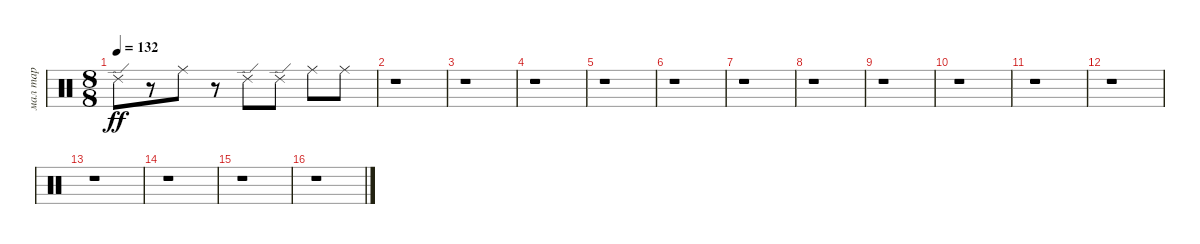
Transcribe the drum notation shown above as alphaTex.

\track ("мал тар" "мал тар") {instrument percussion}
\staff {score}
\articulation defaults
\ts (8 8)
\tempo 132
\clef neutral
\ks c "Ride (edge) 2".8{dy ff}
r.8 "Ride (middle)".8 r.8 "Ride (edge) 2".8 "Ride (edge) 2".8 "Ride (middle)".8 "Ride (middle)".8 |
r.1 |
r.1 |
r.1 |
r.1 |
r.1 |
r.1 |
r.1 |
r.1 |
r.1 |
r.1 |
r.1 |
r.1 |
r.1 |
r.1 |
r.1
